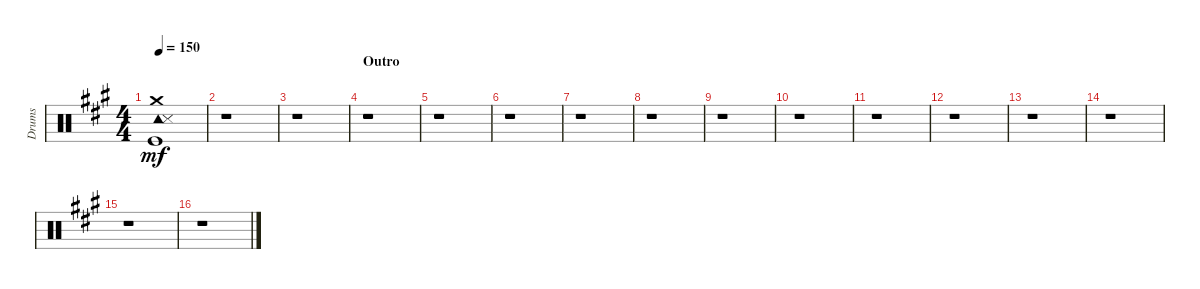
\track ("Drums" "Drums") {instrument percussion}
\staff {score}
\articulation defaults
\ts (4 4)
\tempo 150
\clef neutral
\ks a
("Tambourine (hit)" "Crash medium (hit)" "Metronome (hit)" "Kick (hit)").1{dy mf} |
r.1 |
r.1 |
\section ("" "Outro")
r.1 |
r.1 |
r.1 |
r.1 |
r.1 |
r.1 |
r.1 |
r.1 |
r.1 |
r.1 |
r.1 |
r.1 |
r.1
